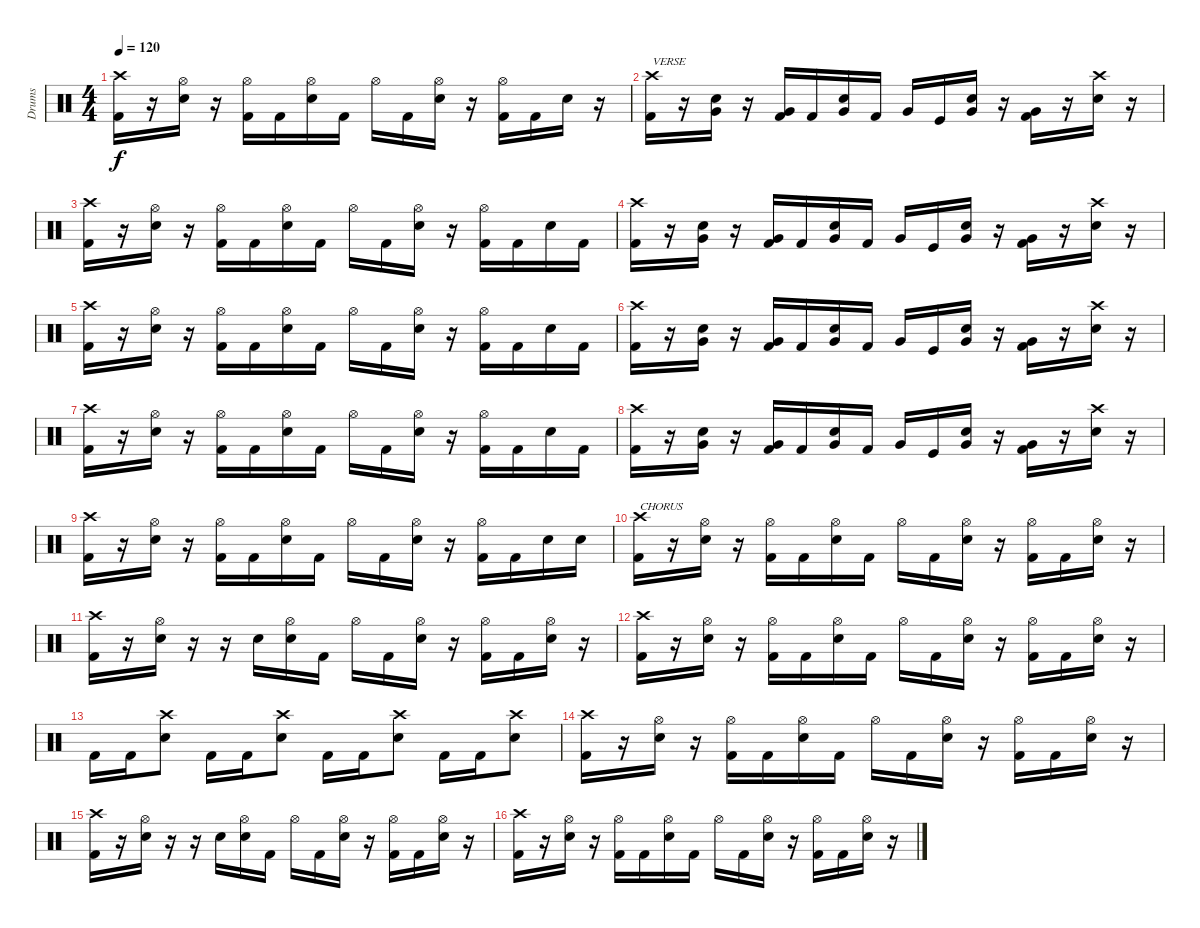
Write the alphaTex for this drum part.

\track ("Drums" "Drums") {instrument percussion}
\staff {score}
\articulation defaults
\ts (4 4)
\tempo 120
\clef neutral
\ks c
("Crash high (hit)" "Kick (hit) 2").16{dy f} r.16 ("Hi-Hat (open)" "Snare (hit) 2").16 r.16 ("Hi-Hat (open)" "Kick (hit) 2").16 "Kick (hit) 2".16 ("Hi-Hat (open)" "Snare (hit) 2").16 "Kick (hit) 2".16 "Hi-Hat (open)".16 "Kick (hit) 2".16 ("Hi-Hat (open)" "Snare (hit) 2").16 r.16 ("Hi-Hat (open)" "Kick (hit) 2").16 "Kick (hit) 2".16 "Snare (hit) 2".16 r.16 |
("Crash high (hit)" "Kick (hit) 2").16{txt "VERSE"} r.16 ("Snare (hit) 2" "Very Low Tom (hit)").16 r.16 ("Very Low Tom (hit)" "Kick (hit) 2").16 "Kick (hit) 2".16 ("Snare (hit) 2" "Very Low Tom (hit)").16 "Kick (hit) 2".16 "Very Low Tom (hit)".16 "Kick (hit)".16 ("Snare (hit) 2" "Very Low Tom (hit)").16 r.16 ("Very Low Tom (hit)" "Kick (hit) 2").16 r.16 ("Crash high (hit)" "Snare (hit) 2").16 r.16 |
("Crash high (hit)" "Kick (hit) 2").16 r.16 ("Hi-Hat (open)" "Snare (hit) 2").16 r.16 ("Hi-Hat (open)" "Kick (hit) 2").16 "Kick (hit) 2".16 ("Hi-Hat (open)" "Snare (hit) 2").16 "Kick (hit) 2".16 "Hi-Hat (open)".16 "Kick (hit) 2".16 ("Hi-Hat (open)" "Snare (hit) 2").16 r.16 ("Hi-Hat (open)" "Kick (hit) 2").16 "Kick (hit) 2".16 "Snare (hit) 2".16 "Kick (hit) 2".16 |
("Crash high (hit)" "Kick (hit) 2").16 r.16 ("Snare (hit) 2" "Very Low Tom (hit)").16 r.16 ("Very Low Tom (hit)" "Kick (hit) 2").16 "Kick (hit) 2".16 ("Snare (hit) 2" "Very Low Tom (hit)").16 "Kick (hit) 2".16 "Very Low Tom (hit)".16 "Kick (hit)".16 ("Snare (hit) 2" "Very Low Tom (hit)").16 r.16 ("Very Low Tom (hit)" "Kick (hit) 2").16 r.16 ("Crash high (hit)" "Snare (hit) 2").16 r.16 |
("Crash high (hit)" "Kick (hit) 2").16 r.16 ("Hi-Hat (open)" "Snare (hit) 2").16 r.16 ("Hi-Hat (open)" "Kick (hit) 2").16 "Kick (hit) 2".16 ("Hi-Hat (open)" "Snare (hit) 2").16 "Kick (hit) 2".16 "Hi-Hat (open)".16 "Kick (hit) 2".16 ("Hi-Hat (open)" "Snare (hit) 2").16 r.16 ("Hi-Hat (open)" "Kick (hit) 2").16 "Kick (hit) 2".16 "Snare (hit) 2".16 "Kick (hit) 2".16 |
("Crash high (hit)" "Kick (hit) 2").16 r.16 ("Snare (hit) 2" "Very Low Tom (hit)").16 r.16 ("Very Low Tom (hit)" "Kick (hit) 2").16 "Kick (hit) 2".16 ("Snare (hit) 2" "Very Low Tom (hit)").16 "Kick (hit) 2".16 "Very Low Tom (hit)".16 "Kick (hit)".16 ("Snare (hit) 2" "Very Low Tom (hit)").16 r.16 ("Very Low Tom (hit)" "Kick (hit) 2").16 r.16 ("Crash high (hit)" "Snare (hit) 2").16 r.16 |
("Crash high (hit)" "Kick (hit) 2").16 r.16 ("Hi-Hat (open)" "Snare (hit) 2").16 r.16 ("Hi-Hat (open)" "Kick (hit) 2").16 "Kick (hit) 2".16 ("Hi-Hat (open)" "Snare (hit) 2").16 "Kick (hit) 2".16 "Hi-Hat (open)".16 "Kick (hit) 2".16 ("Hi-Hat (open)" "Snare (hit) 2").16 r.16 ("Hi-Hat (open)" "Kick (hit) 2").16 "Kick (hit) 2".16 "Snare (hit) 2".16 "Kick (hit) 2".16 |
("Crash high (hit)" "Kick (hit) 2").16 r.16 ("Snare (hit) 2" "Very Low Tom (hit)").16 r.16 ("Very Low Tom (hit)" "Kick (hit) 2").16 "Kick (hit) 2".16 ("Snare (hit) 2" "Very Low Tom (hit)").16 "Kick (hit) 2".16 "Very Low Tom (hit)".16 "Kick (hit)".16 ("Snare (hit) 2" "Very Low Tom (hit)").16 r.16 ("Very Low Tom (hit)" "Kick (hit) 2").16 r.16 ("Crash high (hit)" "Snare (hit) 2").16 r.16 |
("Crash high (hit)" "Kick (hit) 2").16 r.16 ("Hi-Hat (open)" "Snare (hit) 2").16 r.16 ("Hi-Hat (open)" "Kick (hit) 2").16 "Kick (hit) 2".16 ("Hi-Hat (open)" "Snare (hit) 2").16 "Kick (hit) 2".16 "Hi-Hat (open)".16 "Kick (hit) 2".16 ("Hi-Hat (open)" "Snare (hit) 2").16 r.16 ("Hi-Hat (open)" "Kick (hit) 2").16 "Kick (hit) 2".16 "Snare (hit) 2".16 "Snare (hit) 2".16 |
("Crash high (hit)" "Kick (hit) 2").16{txt "CHORUS"} r.16 ("Hi-Hat (open)" "Snare (hit) 2").16 r.16 ("Hi-Hat (open)" "Kick (hit) 2").16 "Kick (hit) 2".16 ("Hi-Hat (open)" "Snare (hit) 2").16 "Kick (hit) 2".16 "Hi-Hat (open)".16 "Kick (hit) 2".16 ("Hi-Hat (open)" "Snare (hit) 2").16 r.16 ("Hi-Hat (open)" "Kick (hit) 2").16 "Kick (hit) 2".16 ("Hi-Hat (open)" "Snare (hit) 2").16 r.16 |
("Crash high (hit)" "Kick (hit) 2").16 r.16 ("Hi-Hat (open)" "Snare (hit) 2").16 r.16 r.16 "Snare (hit) 2".16 ("Hi-Hat (open)" "Snare (hit) 2").16 "Kick (hit) 2".16 "Hi-Hat (open)".16 "Kick (hit) 2".16 ("Hi-Hat (open)" "Snare (hit) 2").16 r.16 ("Hi-Hat (open)" "Kick (hit) 2").16 "Kick (hit) 2".16 ("Hi-Hat (open)" "Snare (hit) 2").16 r.16 |
("Crash high (hit)" "Kick (hit) 2").16 r.16 ("Hi-Hat (open)" "Snare (hit) 2").16 r.16 ("Hi-Hat (open)" "Kick (hit) 2").16 "Kick (hit) 2".16 ("Hi-Hat (open)" "Snare (hit) 2").16 "Kick (hit) 2".16 "Hi-Hat (open)".16 "Kick (hit) 2".16 ("Hi-Hat (open)" "Snare (hit) 2").16 r.16 ("Hi-Hat (open)" "Kick (hit) 2").16 "Kick (hit) 2".16 ("Hi-Hat (open)" "Snare (hit) 2").16 r.16 |
"Kick (hit) 2".16 "Kick (hit) 2".16 ("Crash high (hit)" "Snare (hit) 2").8 "Kick (hit) 2".16 "Kick (hit) 2".16 ("Crash high (hit)" "Snare (hit) 2").8 "Kick (hit) 2".16 "Kick (hit) 2".16 ("Crash high (hit)" "Snare (hit) 2").8 "Kick (hit) 2".16 "Kick (hit) 2".16 ("Crash high (hit)" "Snare (hit) 2").8 |
("Crash high (hit)" "Kick (hit) 2").16 r.16 ("Hi-Hat (open)" "Snare (hit) 2").16 r.16 ("Hi-Hat (open)" "Kick (hit) 2").16 "Kick (hit) 2".16 ("Hi-Hat (open)" "Snare (hit) 2").16 "Kick (hit) 2".16 "Hi-Hat (open)".16 "Kick (hit) 2".16 ("Hi-Hat (open)" "Snare (hit) 2").16 r.16 ("Hi-Hat (open)" "Kick (hit) 2").16 "Kick (hit) 2".16 ("Hi-Hat (open)" "Snare (hit) 2").16 r.16 |
("Crash high (hit)" "Kick (hit) 2").16 r.16 ("Hi-Hat (open)" "Snare (hit) 2").16 r.16 r.16 "Snare (hit) 2".16 ("Hi-Hat (open)" "Snare (hit) 2").16 "Kick (hit) 2".16 "Hi-Hat (open)".16 "Kick (hit) 2".16 ("Hi-Hat (open)" "Snare (hit) 2").16 r.16 ("Hi-Hat (open)" "Kick (hit) 2").16 "Kick (hit) 2".16 ("Hi-Hat (open)" "Snare (hit) 2").16 r.16 |
("Crash high (hit)" "Kick (hit) 2").16 r.16 ("Hi-Hat (open)" "Snare (hit) 2").16 r.16 ("Hi-Hat (open)" "Kick (hit) 2").16 "Kick (hit) 2".16 ("Hi-Hat (open)" "Snare (hit) 2").16 "Kick (hit) 2".16 "Hi-Hat (open)".16 "Kick (hit) 2".16 ("Hi-Hat (open)" "Snare (hit) 2").16 r.16 ("Hi-Hat (open)" "Kick (hit) 2").16 "Kick (hit) 2".16 ("Hi-Hat (open)" "Snare (hit) 2").16 r.16
